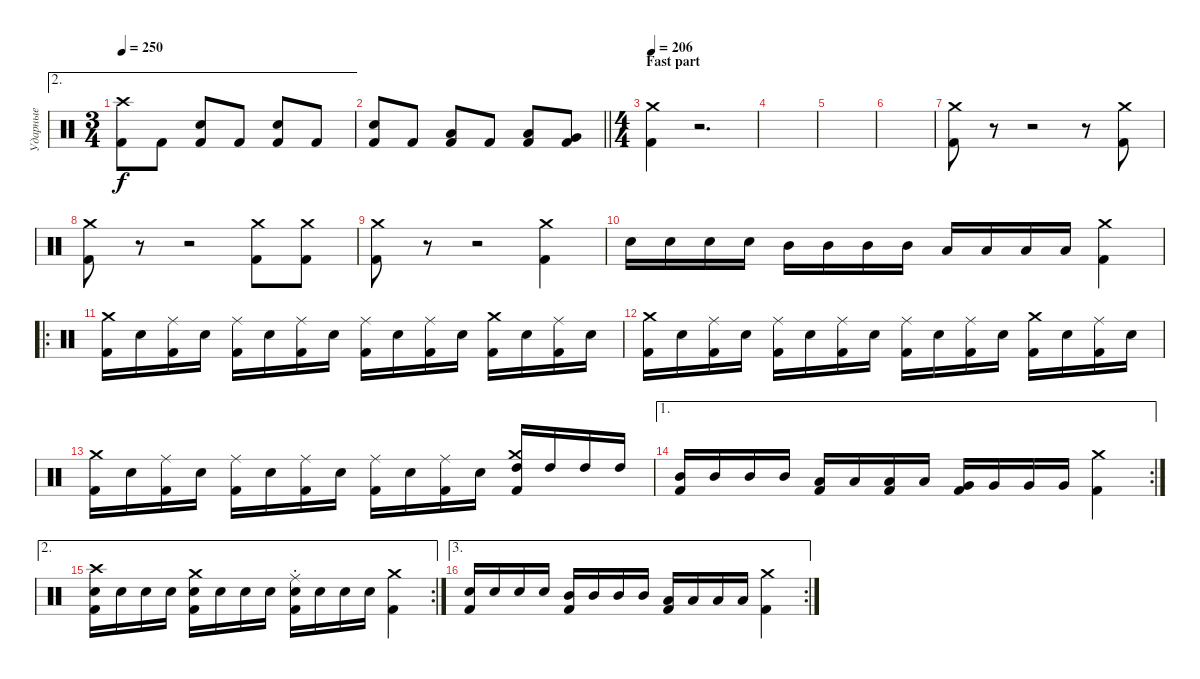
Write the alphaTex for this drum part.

\track ("Ударные" "Ударные") {instrument percussion}
\staff {score}
\articulation defaults
\ae 2
\ts (3 4)
\tempo 250
\clef neutral
\ks c
("Crash high (hit)" "Kick (hit) 2").8{dy f} "Kick (hit) 2".8 ("Electric Snare (hit)" "Kick (hit) 2").8 "Kick (hit) 2".8 ("Electric Snare (hit)" "Kick (hit) 2").8 "Kick (hit) 2".8 |
\barLineRight lightlight
("Electric Snare (hit)" "Kick (hit) 2").8 "Kick (hit) 2".8 ("Low Tom (hit)" "Kick (hit) 2").8 "Kick (hit) 2".8 ("Low Tom (hit)" "Kick (hit) 2").8 ("Very Low Tom (hit)" "Kick (hit) 2").8 |
\ts (4 4)
\section ("" "Fast part")
\tempo 206
("Crash medium (hit)" "Kick (hit) 2").4 r.2{d} |
|
|
|
("Crash medium (hit)" "Kick (hit) 2").8 r.8 r.2 r.8 ("Crash medium (hit)" "Kick (hit) 2").8 |
("Crash medium (hit)" "Kick (hit) 2").8 r.8 r.2 ("Crash medium (hit)" "Kick (hit) 2").8 ("Crash medium (hit)" "Kick (hit) 2").8 |
("Crash medium (hit)" "Kick (hit) 2").8 r.8 r.2 ("Crash medium (hit)" "Kick (hit) 2").4 |
"Electric Snare (hit)".16 "Electric Snare (hit)".16 "Electric Snare (hit)".16 "Electric Snare (hit)".16 "Mid Tom (hit)".16 "Mid Tom (hit)".16 "Mid Tom (hit)".16 "Mid Tom (hit)".16 "Low Tom (hit)".16 "Low Tom (hit)".16 "Low Tom (hit)".16 "Low Tom (hit)".16 ("Crash medium (hit)" "Kick (hit) 2").4 |
\ro
("Crash medium (hit)" "Kick (hit) 2").16 "Electric Snare (hit)".16 ("Ride (middle)" "Kick (hit) 2").16 "Electric Snare (hit)".16 ("Ride (middle)" "Kick (hit) 2").16 "Electric Snare (hit)".16 ("Ride (middle)" "Kick (hit) 2").16 "Electric Snare (hit)".16 ("Ride (middle)" "Kick (hit) 2").16 "Electric Snare (hit)".16 ("Ride (middle)" "Kick (hit) 2").16 "Electric Snare (hit)".16 ("Crash medium (hit)" "Kick (hit) 2").16 "Electric Snare (hit)".16 ("Ride (middle)" "Kick (hit) 2").16 "Electric Snare (hit)".16 |
("Crash medium (hit)" "Kick (hit) 2").16 "Electric Snare (hit)".16 ("Ride (middle)" "Kick (hit) 2").16 "Electric Snare (hit)".16 ("Ride (middle)" "Kick (hit) 2").16 "Electric Snare (hit)".16 ("Ride (middle)" "Kick (hit) 2").16 "Electric Snare (hit)".16 ("Ride (middle)" "Kick (hit) 2").16 "Electric Snare (hit)".16 ("Ride (middle)" "Kick (hit) 2").16 "Electric Snare (hit)".16 ("Crash medium (hit)" "Kick (hit) 2").16 "Electric Snare (hit)".16 ("Ride (middle)" "Kick (hit) 2").16 "Electric Snare (hit)".16 |
("Crash medium (hit)" "Kick (hit) 2").16 "Electric Snare (hit)".16 ("Ride (middle)" "Kick (hit) 2").16 "Electric Snare (hit)".16 ("Ride (middle)" "Kick (hit) 2").16 "Electric Snare (hit)".16 ("Ride (middle)" "Kick (hit) 2").16 "Electric Snare (hit)".16 ("Ride (middle)" "Kick (hit) 2").16 "Electric Snare (hit)".16 ("Ride (middle)" "Kick (hit) 2").16 "Electric Snare (hit)".16 ("Crash medium (hit)" "High Tom (hit)" "Kick (hit) 2").16 "High Tom (hit)".16 "High Tom (hit)".16 "High Tom (hit)".16 |
\ae 1
\rc 2
("Mid Tom (hit)" "Kick (hit) 2").16 "Mid Tom (hit)".16 "Mid Tom (hit)".16 "Mid Tom (hit)".16 ("Low Tom (hit)" "Kick (hit) 2").16 "Low Tom (hit)".16 ("Low Tom (hit)" "Kick (hit) 2").16 "Low Tom (hit)".16 ("Very Low Tom (hit)" "Kick (hit) 2").16 "Very Low Tom (hit)".16 "Very Low Tom (hit)".16 "Very Low Tom (hit)".16 ("Crash medium (hit)" "Kick (hit) 2").4 |
\ae 2
\rc 2
("Crash high (hit)" "Electric Snare (hit)" "Kick (hit) 2").16 "Electric Snare (hit)".16 "Electric Snare (hit)".16 "Electric Snare (hit)".16 ("Crash medium (hit)" "Electric Snare (hit)" "Kick (hit) 2").16 "Electric Snare (hit)".16 "Electric Snare (hit)".16 "Electric Snare (hit)".16 ("Ride (choke)" "Electric Snare (hit)" "Kick (hit) 2").16 "Electric Snare (hit)".16 "Electric Snare (hit)".16 "Electric Snare (hit)".16 ("Crash medium (hit)" "Kick (hit) 2").4 |
\ae 3
\rc 2
("Electric Snare (hit)" "Kick (hit) 2").16 "Electric Snare (hit)".16 "Electric Snare (hit)".16 "Electric Snare (hit)".16 ("Mid Tom (hit)" "Kick (hit) 2").16 "Mid Tom (hit)".16 "Mid Tom (hit)".16 "Mid Tom (hit)".16 ("Low Tom (hit)" "Kick (hit) 2").16 "Low Tom (hit)".16 "Low Tom (hit)".16 "Low Tom (hit)".16 ("Crash medium (hit)" "Kick (hit) 2").4
